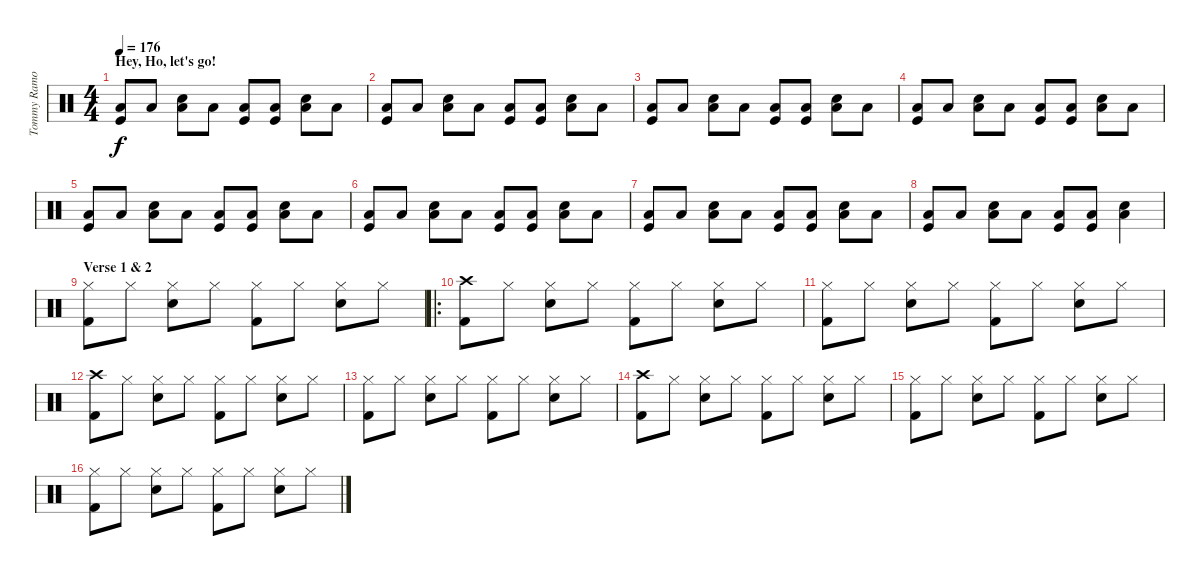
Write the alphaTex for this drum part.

\track ("Tommy Ramone" "Tommy Ramo") {instrument percussion}
\staff {score}
\articulation defaults
\ts (4 4)
\section ("" "Hey, Ho, let's go!")
\tempo 176
\clef neutral
\ks c
("Low Floor Tom (hit)" "Kick (hit)").8{dy f} "Low Floor Tom (hit)".8 ("Snare (hit) 2" "Low Floor Tom (hit)").8 "Low Floor Tom (hit)".8 ("Low Floor Tom (hit)" "Kick (hit)").8 ("Low Floor Tom (hit)" "Kick (hit)").8 ("Snare (hit) 2" "Low Floor Tom (hit)").8 "Low Floor Tom (hit)".8 |
("Low Floor Tom (hit)" "Kick (hit)").8 "Low Floor Tom (hit)".8 ("Snare (hit) 2" "Low Floor Tom (hit)").8 "Low Floor Tom (hit)".8 ("Low Floor Tom (hit)" "Kick (hit)").8 ("Low Floor Tom (hit)" "Kick (hit)").8 ("Snare (hit) 2" "Low Floor Tom (hit)").8 "Low Floor Tom (hit)".8 |
("Low Floor Tom (hit)" "Kick (hit)").8 "Low Floor Tom (hit)".8 ("Snare (hit) 2" "Low Floor Tom (hit)").8 "Low Floor Tom (hit)".8 ("Low Floor Tom (hit)" "Kick (hit)").8 ("Low Floor Tom (hit)" "Kick (hit)").8 ("Snare (hit) 2" "Low Floor Tom (hit)").8 "Low Floor Tom (hit)".8 |
("Low Floor Tom (hit)" "Kick (hit)").8 "Low Floor Tom (hit)".8 ("Snare (hit) 2" "Low Floor Tom (hit)").8 "Low Floor Tom (hit)".8 ("Low Floor Tom (hit)" "Kick (hit)").8 ("Low Floor Tom (hit)" "Kick (hit)").8 ("Snare (hit) 2" "Low Floor Tom (hit)").8 "Low Floor Tom (hit)".8 |
("Low Floor Tom (hit)" "Kick (hit)").8 "Low Floor Tom (hit)".8 ("Snare (hit) 2" "Low Floor Tom (hit)").8 "Low Floor Tom (hit)".8 ("Low Floor Tom (hit)" "Kick (hit)").8 ("Low Floor Tom (hit)" "Kick (hit)").8 ("Snare (hit) 2" "Low Floor Tom (hit)").8 "Low Floor Tom (hit)".8 |
("Low Floor Tom (hit)" "Kick (hit)").8 "Low Floor Tom (hit)".8 ("Snare (hit) 2" "Low Floor Tom (hit)").8 "Low Floor Tom (hit)".8 ("Low Floor Tom (hit)" "Kick (hit)").8 ("Low Floor Tom (hit)" "Kick (hit)").8 ("Snare (hit) 2" "Low Floor Tom (hit)").8 "Low Floor Tom (hit)".8 |
("Low Floor Tom (hit)" "Kick (hit)").8 "Low Floor Tom (hit)".8 ("Snare (hit) 2" "Low Floor Tom (hit)").8 "Low Floor Tom (hit)".8 ("Low Floor Tom (hit)" "Kick (hit)").8 ("Low Floor Tom (hit)" "Kick (hit)").8 ("Snare (hit) 2" "Low Floor Tom (hit)").8 "Low Floor Tom (hit)".8 |
("Low Floor Tom (hit)" "Kick (hit)").8 "Low Floor Tom (hit)".8 ("Snare (hit) 2" "Low Floor Tom (hit)").8 "Low Floor Tom (hit)".8 ("Low Floor Tom (hit)" "Kick (hit)").8 ("Low Floor Tom (hit)" "Kick (hit)").8 ("Snare (hit) 2" "Low Floor Tom (hit)").4 |
\section ("" "Verse 1 & 2")
("Hi-Hat (closed)" "Kick (hit) 2").8 "Hi-Hat (closed)".8 ("Hi-Hat (closed)" "Snare (hit) 2").8 "Hi-Hat (closed)".8 ("Hi-Hat (closed)" "Kick (hit) 2").8 "Hi-Hat (closed)".8 ("Hi-Hat (closed)" "Snare (hit) 2").8 "Hi-Hat (closed)".8 |
\ro
("Crash high (hit)" "Kick (hit) 2").8 "Hi-Hat (closed)".8 ("Hi-Hat (closed)" "Snare (hit) 2").8 "Hi-Hat (closed)".8 ("Hi-Hat (closed)" "Kick (hit) 2").8 "Hi-Hat (closed)".8 ("Hi-Hat (closed)" "Snare (hit) 2").8 "Hi-Hat (closed)".8 |
("Hi-Hat (closed)" "Kick (hit) 2").8 "Hi-Hat (closed)".8 ("Hi-Hat (closed)" "Snare (hit) 2").8 "Hi-Hat (closed)".8 ("Hi-Hat (closed)" "Kick (hit) 2").8 "Hi-Hat (closed)".8 ("Hi-Hat (closed)" "Snare (hit) 2").8 "Hi-Hat (closed)".8 |
("Crash high (hit)" "Kick (hit) 2").8 "Hi-Hat (closed)".8 ("Hi-Hat (closed)" "Snare (hit) 2").8 "Hi-Hat (closed)".8 ("Hi-Hat (closed)" "Kick (hit) 2").8 "Hi-Hat (closed)".8 ("Hi-Hat (closed)" "Snare (hit) 2").8 "Hi-Hat (closed)".8 |
("Hi-Hat (closed)" "Kick (hit) 2").8 "Hi-Hat (closed)".8 ("Hi-Hat (closed)" "Snare (hit) 2").8 "Hi-Hat (closed)".8 ("Hi-Hat (closed)" "Kick (hit) 2").8 "Hi-Hat (closed)".8 ("Hi-Hat (closed)" "Snare (hit) 2").8 "Hi-Hat (closed)".8 |
("Crash high (hit)" "Kick (hit) 2").8 "Hi-Hat (closed)".8 ("Hi-Hat (closed)" "Snare (hit) 2").8 "Hi-Hat (closed)".8 ("Hi-Hat (closed)" "Kick (hit) 2").8 "Hi-Hat (closed)".8 ("Hi-Hat (closed)" "Snare (hit) 2").8 "Hi-Hat (closed)".8 |
("Hi-Hat (closed)" "Kick (hit) 2").8 "Hi-Hat (closed)".8 ("Hi-Hat (closed)" "Snare (hit) 2").8 "Hi-Hat (closed)".8 ("Hi-Hat (closed)" "Kick (hit) 2").8 "Hi-Hat (closed)".8 ("Hi-Hat (closed)" "Snare (hit) 2").8 "Hi-Hat (closed)".8 |
("Hi-Hat (closed)" "Kick (hit) 2").8 "Hi-Hat (closed)".8 ("Hi-Hat (closed)" "Snare (hit) 2").8 "Hi-Hat (closed)".8 ("Hi-Hat (closed)" "Kick (hit) 2").8 "Hi-Hat (closed)".8 ("Hi-Hat (closed)" "Snare (hit) 2").8 "Hi-Hat (closed)".8
